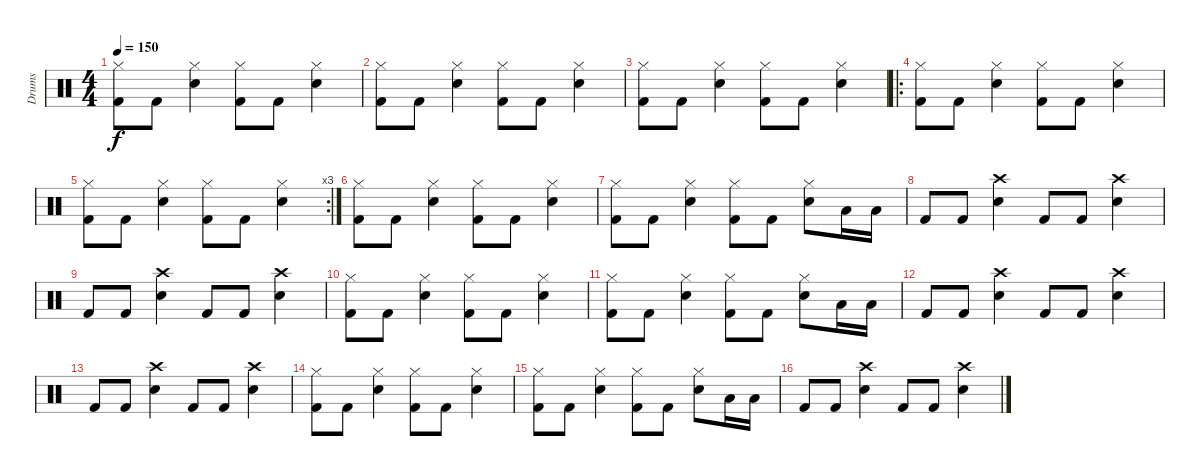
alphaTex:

\track ("Drums" "Drums") {instrument percussion}
\staff {score}
\articulation defaults
\ts (4 4)
\tempo 150
\clef neutral
\ks c
("Hi-Hat (closed)" "Kick (hit) 2").8{dy f} "Kick (hit) 2".8 ("Hi-Hat (closed)" "Electric Snare (hit)").4 ("Hi-Hat (closed)" "Kick (hit) 2").8 "Kick (hit) 2".8 ("Hi-Hat (closed)" "Electric Snare (hit)").4 |
("Hi-Hat (closed)" "Kick (hit) 2").8 "Kick (hit) 2".8 ("Hi-Hat (closed)" "Electric Snare (hit)").4 ("Hi-Hat (closed)" "Kick (hit) 2").8 "Kick (hit) 2".8 ("Hi-Hat (closed)" "Electric Snare (hit)").4 |
("Hi-Hat (closed)" "Kick (hit) 2").8 "Kick (hit) 2".8 ("Hi-Hat (closed)" "Electric Snare (hit)").4 ("Hi-Hat (closed)" "Kick (hit) 2").8 "Kick (hit) 2".8 ("Hi-Hat (closed)" "Electric Snare (hit)").4 |
\ro
("Hi-Hat (closed)" "Kick (hit) 2").8 "Kick (hit) 2".8 ("Hi-Hat (closed)" "Electric Snare (hit)").4 ("Hi-Hat (closed)" "Kick (hit) 2").8 "Kick (hit) 2".8 ("Hi-Hat (closed)" "Electric Snare (hit)").4 |
\rc 3
("Hi-Hat (closed)" "Kick (hit) 2").8 "Kick (hit) 2".8 ("Hi-Hat (closed)" "Electric Snare (hit)").4 ("Hi-Hat (closed)" "Kick (hit) 2").8 "Kick (hit) 2".8 ("Hi-Hat (closed)" "Electric Snare (hit)").4 |
("Hi-Hat (closed)" "Kick (hit) 2").8 "Kick (hit) 2".8 ("Hi-Hat (closed)" "Electric Snare (hit)").4 ("Hi-Hat (closed)" "Kick (hit) 2").8 "Kick (hit) 2".8 ("Hi-Hat (closed)" "Electric Snare (hit)").4 |
("Hi-Hat (closed)" "Kick (hit) 2").8 "Kick (hit) 2".8 ("Hi-Hat (closed)" "Electric Snare (hit)").4 ("Hi-Hat (closed)" "Kick (hit) 2").8 "Kick (hit) 2".8 ("Hi-Hat (closed)" "Electric Snare (hit)").8 "Low Floor Tom (hit)".16 "Low Floor Tom (hit)".16 |
"Kick (hit) 2".8 "Kick (hit) 2".8 ("Crash high (hit)" "Electric Snare (hit)").4 "Kick (hit) 2".8 "Kick (hit) 2".8 ("Crash high (hit)" "Electric Snare (hit)").4 |
"Kick (hit) 2".8 "Kick (hit) 2".8 ("Crash high (hit)" "Electric Snare (hit)").4 "Kick (hit) 2".8 "Kick (hit) 2".8 ("Crash high (hit)" "Electric Snare (hit)").4 |
("Hi-Hat (closed)" "Kick (hit) 2").8 "Kick (hit) 2".8 ("Hi-Hat (closed)" "Electric Snare (hit)").4 ("Hi-Hat (closed)" "Kick (hit) 2").8 "Kick (hit) 2".8 ("Hi-Hat (closed)" "Electric Snare (hit)").4 |
("Hi-Hat (closed)" "Kick (hit) 2").8 "Kick (hit) 2".8 ("Hi-Hat (closed)" "Electric Snare (hit)").4 ("Hi-Hat (closed)" "Kick (hit) 2").8 "Kick (hit) 2".8 ("Hi-Hat (closed)" "Electric Snare (hit)").8 "Low Floor Tom (hit)".16 "Low Floor Tom (hit)".16 |
"Kick (hit) 2".8 "Kick (hit) 2".8 ("Crash high (hit)" "Electric Snare (hit)").4 "Kick (hit) 2".8 "Kick (hit) 2".8 ("Crash high (hit)" "Electric Snare (hit)").4 |
"Kick (hit) 2".8 "Kick (hit) 2".8 ("Crash high (hit)" "Electric Snare (hit)").4 "Kick (hit) 2".8 "Kick (hit) 2".8 ("Crash high (hit)" "Electric Snare (hit)").4 |
("Hi-Hat (closed)" "Kick (hit) 2").8 "Kick (hit) 2".8 ("Hi-Hat (closed)" "Electric Snare (hit)").4 ("Hi-Hat (closed)" "Kick (hit) 2").8 "Kick (hit) 2".8 ("Hi-Hat (closed)" "Electric Snare (hit)").4 |
("Hi-Hat (closed)" "Kick (hit) 2").8 "Kick (hit) 2".8 ("Hi-Hat (closed)" "Electric Snare (hit)").4 ("Hi-Hat (closed)" "Kick (hit) 2").8 "Kick (hit) 2".8 ("Hi-Hat (closed)" "Electric Snare (hit)").8 "Low Floor Tom (hit)".16 "Low Floor Tom (hit)".16 |
"Kick (hit) 2".8 "Kick (hit) 2".8 ("Crash high (hit)" "Electric Snare (hit)").4 "Kick (hit) 2".8 "Kick (hit) 2".8 ("Crash high (hit)" "Electric Snare (hit)").4
